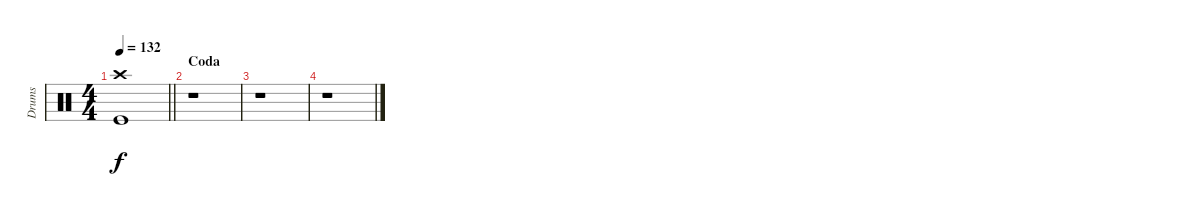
\track ("Drums" "Drums") {instrument percussion}
\staff {score}
\articulation defaults
\ts (4 4)
\tempo 132
\clef neutral
\barLineRight lightlight
\ks c
("Crash high (hit)" "Kick (hit)").1{dy f} |
\section ("" "Coda")
r.1 |
r.1 |
r.1
